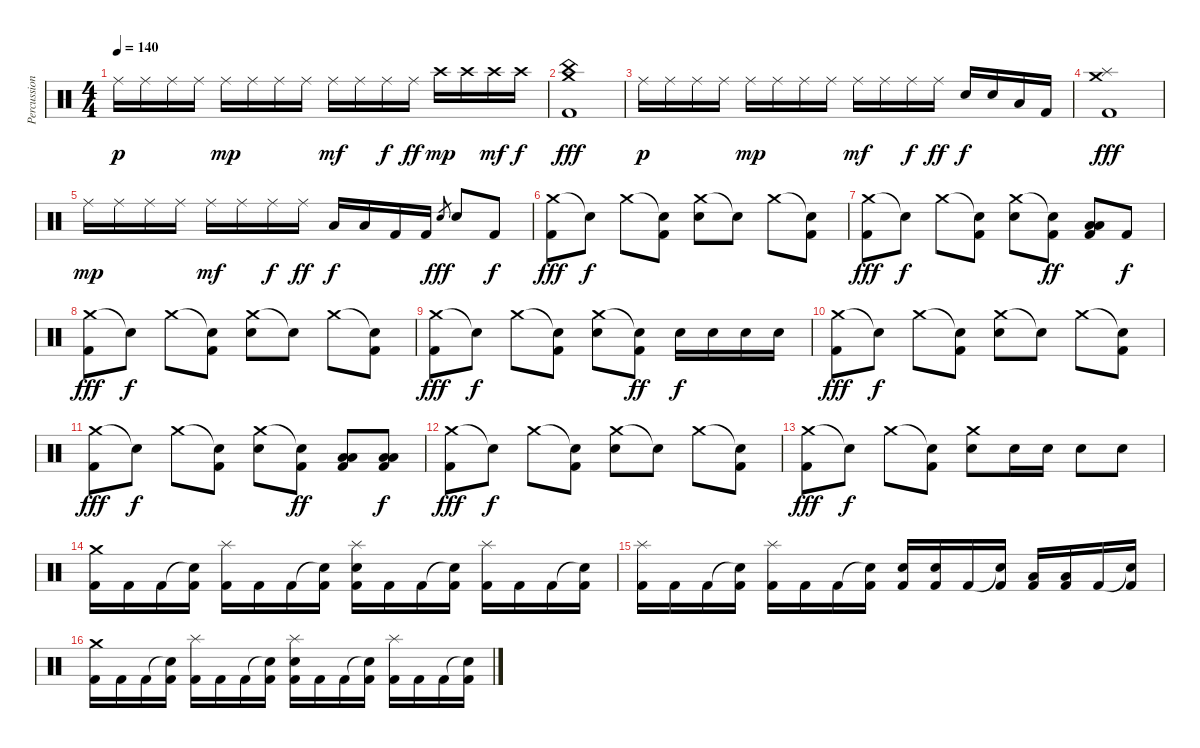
\track ("Percussion" "Percussion") {instrument percussion}
\staff {score}
\articulation defaults
\ts (4 4)
\tempo 140
\clef neutral
\ks c "Ride (middle)".16{dy p} "Ride (middle)".16 "Ride (middle)".16 "Ride (middle)".16 "Ride (middle)".16{dy mp} "Ride (middle)".16 "Ride (middle)".16 "Ride (middle)".16 "Ride (middle)".16{dy mf} "Ride (middle)".16 "Ride (middle)".16{dy f} "Ride (middle)".16{dy ff} "Crash high (hit)".16{dy mp} "Crash high (hit)".16 "Crash high (hit)".16{dy mf} "Crash high (hit)".16{dy f}
|
("Crash medium (hit)" "China (hit)" "Kick (hit) 2").1{dy fff} |
"Ride (middle)".16{dy p} "Ride (middle)".16 "Ride (middle)".16 "Ride (middle)".16 "Ride (middle)".16{dy mp} "Ride (middle)".16 "Ride (middle)".16 "Ride (middle)".16 "Ride (middle)".16{dy mf} "Ride (middle)".16 "Ride (middle)".16{dy f} "Ride (middle)".16{dy ff} "Electric Snare (hit)".16{dy f} "Electric Snare (hit)".16 "Low Tom (hit)".16 "Kick (hit) 2".16 |
("Crash medium (hit)" "Splash (hit)" "Kick (hit) 2").1{dy fff} |
"Ride (middle)".16{dy mp} "Ride (middle)".16 "Ride (middle)".16 "Ride (middle)".16 "Ride (middle)".16{dy mf} "Ride (middle)".16 "Ride (middle)".16{dy f} "Ride (middle)".16{dy ff} "Low Tom (hit)".16{dy f} "Low Tom (hit)".16 "Kick (hit) 2".16 "Kick (hit) 2".16 "Electric Snare (hit)".8{gr dy fff} "Electric Snare (hit)".8 "Kick (hit) 2".8{dy f} |
("Crash medium (hit)" "Kick (hit) 2").8{dy fff} "Snare (hit)"{t}.8{dy f} "Crash medium (hit)".8 ("Snare (hit)"{t} "Kick (hit) 2").8 ("Crash medium (hit)" "Electric Snare (hit)").8 "Snare (hit)"{t}.8 "Crash medium (hit)".8 ("Snare (hit)"{t} "Kick (hit) 2").8 |
("Crash medium (hit)" "Kick (hit) 2").8{dy fff} "Snare (hit)"{t}.8{dy f} "Crash medium (hit)".8 ("Snare (hit)"{t} "Kick (hit) 2").8 ("Crash medium (hit)" "Electric Snare (hit)").8 ("Snare (hit)"{t} "Kick (hit) 2").8{dy ff} ("Low Tom (hit)" "Low Floor Tom (hit)" "Kick (hit) 2").8 "Kick (hit) 2".8{dy f} |
("Crash medium (hit)" "Kick (hit) 2").8{dy fff} "Snare (hit)"{t}.8{dy f} "Crash medium (hit)".8 ("Snare (hit)"{t} "Kick (hit) 2").8 ("Crash medium (hit)" "Electric Snare (hit)").8 "Snare (hit)"{t}.8 "Crash medium (hit)".8 ("Snare (hit)"{t} "Kick (hit) 2").8 |
("Crash medium (hit)" "Kick (hit) 2").8{dy fff} "Snare (hit)"{t}.8{dy f} "Crash medium (hit)".8 ("Snare (hit)"{t} "Kick (hit) 2").8 ("Crash medium (hit)" "Electric Snare (hit)").8 ("Snare (hit)"{t} "Kick (hit) 2").8{dy ff} "Electric Snare (hit)".16{dy f} "Electric Snare (hit)".16 "Electric Snare (hit)".16 "Electric Snare (hit)".16 |
("Crash medium (hit)" "Kick (hit) 2").8{dy fff} "Snare (hit)"{t}.8{dy f} "Crash medium (hit)".8 ("Snare (hit)"{t} "Kick (hit) 2").8 ("Crash medium (hit)" "Electric Snare (hit)").8 "Snare (hit)"{t}.8 "Crash medium (hit)".8 ("Snare (hit)"{t} "Kick (hit) 2").8 |
("Crash medium (hit)" "Kick (hit) 2").8{dy fff} "Snare (hit)"{t}.8{dy f} "Crash medium (hit)".8 ("Snare (hit)"{t} "Kick (hit) 2").8 ("Crash medium (hit)" "Electric Snare (hit)").8 ("Snare (hit)"{t} "Kick (hit) 2").8{dy ff} ("Low Tom (hit)" "Low Floor Tom (hit)" "Kick (hit) 2").8 ("Low Tom (hit)" "Low Floor Tom (hit)" "Kick (hit) 2").8{dy f} |
("Crash medium (hit)" "Kick (hit) 2").8{dy fff} "Snare (hit)"{t}.8{dy f} "Crash medium (hit)".8 ("Snare (hit)"{t} "Kick (hit) 2").8 ("Crash medium (hit)" "Electric Snare (hit)").8 "Snare (hit)"{t}.8 "Crash medium (hit)".8 ("Snare (hit)"{t} "Kick (hit) 2").8 |
("Crash medium (hit)" "Kick (hit) 2").8{dy fff} "Snare (hit)"{t}.8{dy f} "Crash medium (hit)".8 ("Snare (hit)"{t} "Kick (hit) 2").8 ("Crash medium (hit)" "Electric Snare (hit)").8 "Electric Snare (hit)".16 "Electric Snare (hit)".16 "Electric Snare (hit)".8 "Electric Snare (hit)".8 |
("Crash medium (hit)" "Kick (hit) 2").16 "Kick (hit) 2".16 "Kick (hit) 2".16 ("Snare (hit)"{t} "Kick (hit) 2").16 ("Splash (hit)" "Kick (hit) 2").16 "Kick (hit) 2".16 "Kick (hit) 2".16 ("Snare (hit)"{t} "Kick (hit) 2").16 ("Splash (hit)" "Electric Snare (hit)" "Kick (hit) 2").16 "Kick (hit) 2".16 "Kick (hit) 2".16 ("Snare (hit)"{t} "Kick (hit) 2").16 ("Splash (hit)" "Kick (hit) 2").16 "Kick (hit) 2".16 "Kick (hit) 2".16 ("Snare (hit)"{t} "Kick (hit) 2").16 |
("Splash (hit)" "Kick (hit) 2").16 "Kick (hit) 2".16 "Kick (hit) 2".16 ("Snare (hit)"{t} "Kick (hit) 2").16 ("Splash (hit)" "Kick (hit) 2").16 "Kick (hit) 2".16 "Kick (hit) 2".16 ("Snare (hit)"{t} "Kick (hit) 2").16 ("Electric Snare (hit)" "Kick (hit) 2").16 ("Electric Snare (hit)" "Kick (hit) 2").16 "Kick (hit) 2".16 ("Snare (hit)"{t} "Kick (hit) 2").16 ("Low Floor Tom (hit)" "Kick (hit) 2").16 ("Low Floor Tom (hit)" "Kick (hit) 2").16 "Kick (hit) 2".16 ("Snare (hit)"{t} "Kick (hit) 2").16 |
("Crash medium (hit)" "Kick (hit) 2").16 "Kick (hit) 2".16 "Kick (hit) 2".16 ("Snare (hit)"{t} "Kick (hit) 2").16 ("Splash (hit)" "Kick (hit) 2").16 "Kick (hit) 2".16 "Kick (hit) 2".16 ("Snare (hit)"{t} "Kick (hit) 2").16 ("Splash (hit)" "Electric Snare (hit)" "Kick (hit) 2").16 "Kick (hit) 2".16 "Kick (hit) 2".16 ("Snare (hit)"{t} "Kick (hit) 2").16 ("Splash (hit)" "Kick (hit) 2").16 "Kick (hit) 2".16 "Kick (hit) 2".16 ("Snare (hit)"{t} "Kick (hit) 2").16
